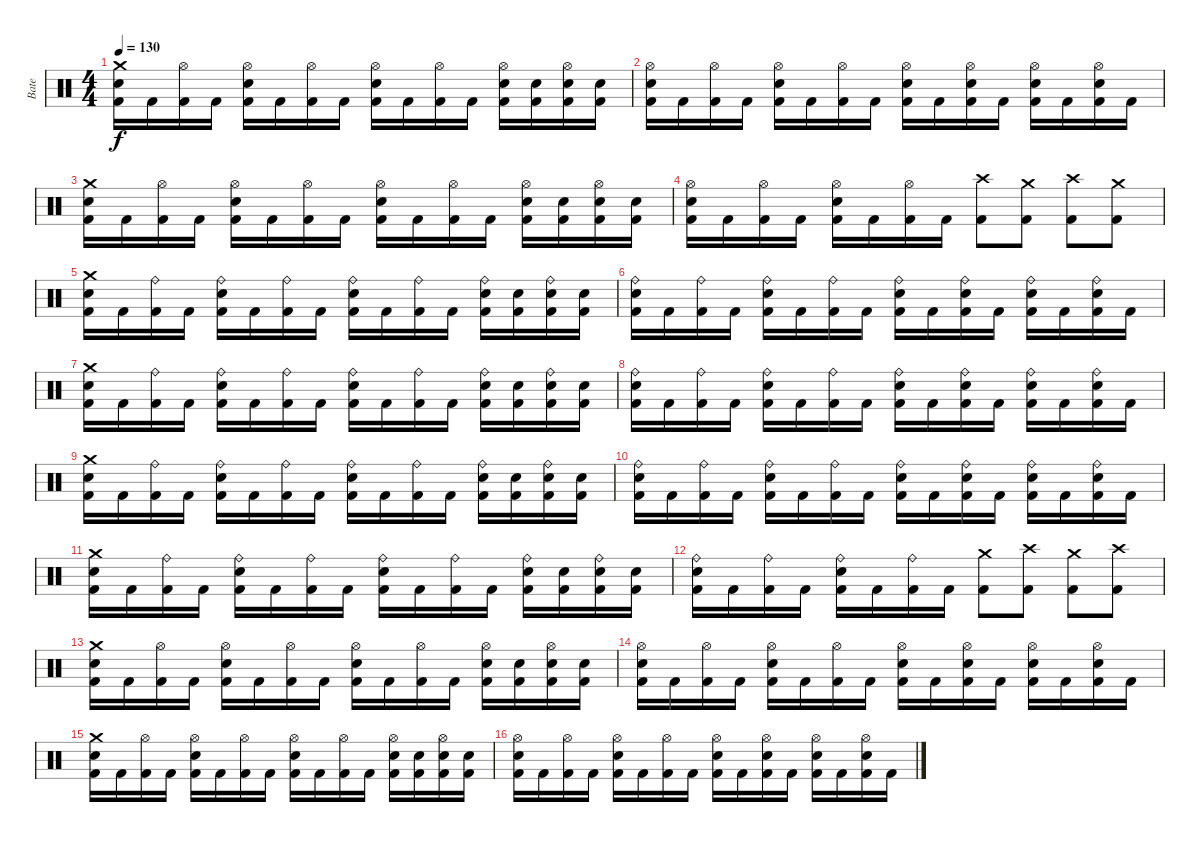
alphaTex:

\track ("Bate" "Bate") {instrument percussion}
\staff {score}
\articulation defaults
\ts (4 4)
\tempo 130
\clef neutral
\ks c
("Crash medium (hit)" "Snare (hit) 2" "Kick (hit) 2").16{dy f} "Kick (hit) 2".16 ("Hi-Hat (open)" "Kick (hit) 2").16 "Kick (hit) 2".16 ("Hi-Hat (open)" "Snare (hit) 2" "Kick (hit) 2").16 "Kick (hit) 2".16 ("Hi-Hat (open)" "Kick (hit) 2").16 "Kick (hit) 2".16 ("Hi-Hat (open)" "Snare (hit) 2" "Kick (hit) 2").16 "Kick (hit) 2".16 ("Hi-Hat (open)" "Kick (hit) 2").16 "Kick (hit) 2".16 ("Hi-Hat (open)" "Snare (hit) 2" "Kick (hit) 2").16 ("Snare (hit) 2" "Kick (hit) 2").16 ("Hi-Hat (open)" "Snare (hit) 2" "Kick (hit) 2").16 ("Snare (hit) 2" "Kick (hit) 2").16 |
("Hi-Hat (open)" "Snare (hit) 2" "Kick (hit) 2").16 "Kick (hit) 2".16 ("Hi-Hat (open)" "Kick (hit) 2").16 "Kick (hit) 2".16 ("Hi-Hat (open)" "Snare (hit) 2" "Kick (hit) 2").16 "Kick (hit) 2".16 ("Hi-Hat (open)" "Kick (hit) 2").16 "Kick (hit) 2".16 ("Hi-Hat (open)" "Snare (hit) 2" "Kick (hit) 2").16 "Kick (hit) 2".16 ("Hi-Hat (open)" "Snare (hit) 2" "Kick (hit) 2").16 "Kick (hit) 2".16 ("Hi-Hat (open)" "Snare (hit) 2" "Kick (hit) 2").16 "Kick (hit) 2".16 ("Hi-Hat (open)" "Snare (hit) 2" "Kick (hit) 2").16 "Kick (hit) 2".16 |
("Crash medium (hit)" "Snare (hit) 2" "Kick (hit) 2").16 "Kick (hit) 2".16 ("Hi-Hat (open)" "Kick (hit) 2").16 "Kick (hit) 2".16 ("Hi-Hat (open)" "Snare (hit) 2" "Kick (hit) 2").16 "Kick (hit) 2".16 ("Hi-Hat (open)" "Kick (hit) 2").16 "Kick (hit) 2".16 ("Hi-Hat (open)" "Snare (hit) 2" "Kick (hit) 2").16 "Kick (hit) 2".16 ("Hi-Hat (open)" "Kick (hit) 2").16 "Kick (hit) 2".16 ("Hi-Hat (open)" "Snare (hit) 2" "Kick (hit) 2").16 ("Snare (hit) 2" "Kick (hit) 2").16 ("Hi-Hat (open)" "Snare (hit) 2" "Kick (hit) 2").16 ("Snare (hit) 2" "Kick (hit) 2").16 |
("Hi-Hat (open)" "Snare (hit) 2" "Kick (hit) 2").16 "Kick (hit) 2".16 ("Hi-Hat (open)" "Kick (hit) 2").16 "Kick (hit) 2".16 ("Hi-Hat (open)" "Snare (hit) 2" "Kick (hit) 2").16 "Kick (hit) 2".16 ("Hi-Hat (open)" "Kick (hit) 2").16 "Kick (hit) 2".16 ("Crash high (hit)" "Kick (hit) 2").8 ("Crash medium (hit)" "Kick (hit) 2").8 ("Crash high (hit)" "Kick (hit) 2").8 ("Crash medium (hit)" "Kick (hit) 2").8 |
("Crash medium (hit)" "Snare (hit) 2" "Kick (hit) 2").16 "Kick (hit) 2".16 ("Ride (bell)" "Kick (hit) 2").16 "Kick (hit) 2".16 ("Ride (bell)" "Snare (hit) 2" "Kick (hit) 2").16 "Kick (hit) 2".16 ("Ride (bell)" "Kick (hit) 2").16 "Kick (hit) 2".16 ("Ride (bell)" "Snare (hit) 2" "Kick (hit) 2").16 "Kick (hit) 2".16 ("Ride (bell)" "Kick (hit) 2").16 "Kick (hit) 2".16 ("Ride (bell)" "Snare (hit) 2" "Kick (hit) 2").16 ("Snare (hit) 2" "Kick (hit) 2").16 ("Ride (bell)" "Snare (hit) 2" "Kick (hit) 2").16 ("Snare (hit) 2" "Kick (hit) 2").16 |
("Ride (bell)" "Snare (hit) 2" "Kick (hit) 2").16 "Kick (hit) 2".16 ("Ride (bell)" "Kick (hit) 2").16 "Kick (hit) 2".16 ("Ride (bell)" "Snare (hit) 2" "Kick (hit) 2").16 "Kick (hit) 2".16 ("Ride (bell)" "Kick (hit) 2").16 "Kick (hit) 2".16 ("Ride (bell)" "Snare (hit) 2" "Kick (hit) 2").16 "Kick (hit) 2".16 ("Ride (bell)" "Snare (hit) 2" "Kick (hit) 2").16 "Kick (hit) 2".16 ("Ride (bell)" "Snare (hit) 2" "Kick (hit) 2").16 "Kick (hit) 2".16 ("Ride (bell)" "Snare (hit) 2" "Kick (hit) 2").16 "Kick (hit) 2".16 |
("Crash medium (hit)" "Snare (hit) 2" "Kick (hit) 2").16 "Kick (hit) 2".16 ("Ride (bell)" "Kick (hit) 2").16 "Kick (hit) 2".16 ("Ride (bell)" "Snare (hit) 2" "Kick (hit) 2").16 "Kick (hit) 2".16 ("Ride (bell)" "Kick (hit) 2").16 "Kick (hit) 2".16 ("Ride (bell)" "Snare (hit) 2" "Kick (hit) 2").16 "Kick (hit) 2".16 ("Ride (bell)" "Kick (hit) 2").16 "Kick (hit) 2".16 ("Ride (bell)" "Snare (hit) 2" "Kick (hit) 2").16 ("Snare (hit) 2" "Kick (hit) 2").16 ("Ride (bell)" "Snare (hit) 2" "Kick (hit) 2").16 ("Snare (hit) 2" "Kick (hit) 2").16 |
("Ride (bell)" "Snare (hit) 2" "Kick (hit) 2").16 "Kick (hit) 2".16 ("Ride (bell)" "Kick (hit) 2").16 "Kick (hit) 2".16 ("Ride (bell)" "Snare (hit) 2" "Kick (hit) 2").16 "Kick (hit) 2".16 ("Ride (bell)" "Kick (hit) 2").16 "Kick (hit) 2".16 ("Ride (bell)" "Snare (hit) 2" "Kick (hit) 2").16 "Kick (hit) 2".16 ("Ride (bell)" "Snare (hit) 2" "Kick (hit) 2").16 "Kick (hit) 2".16 ("Ride (bell)" "Snare (hit) 2" "Kick (hit) 2").16 "Kick (hit) 2".16 ("Ride (bell)" "Snare (hit) 2" "Kick (hit) 2").16 "Kick (hit) 2".16 |
("Crash medium (hit)" "Snare (hit) 2" "Kick (hit) 2").16 "Kick (hit) 2".16 ("Ride (bell)" "Kick (hit) 2").16 "Kick (hit) 2".16 ("Ride (bell)" "Snare (hit) 2" "Kick (hit) 2").16 "Kick (hit) 2".16 ("Ride (bell)" "Kick (hit) 2").16 "Kick (hit) 2".16 ("Ride (bell)" "Snare (hit) 2" "Kick (hit) 2").16 "Kick (hit) 2".16 ("Ride (bell)" "Kick (hit) 2").16 "Kick (hit) 2".16 ("Ride (bell)" "Snare (hit) 2" "Kick (hit) 2").16 ("Snare (hit) 2" "Kick (hit) 2").16 ("Ride (bell)" "Snare (hit) 2" "Kick (hit) 2").16 ("Snare (hit) 2" "Kick (hit) 2").16 |
("Ride (bell)" "Snare (hit) 2" "Kick (hit) 2").16 "Kick (hit) 2".16 ("Ride (bell)" "Kick (hit) 2").16 "Kick (hit) 2".16 ("Ride (bell)" "Snare (hit) 2" "Kick (hit) 2").16 "Kick (hit) 2".16 ("Ride (bell)" "Kick (hit) 2").16 "Kick (hit) 2".16 ("Ride (bell)" "Snare (hit) 2" "Kick (hit) 2").16 "Kick (hit) 2".16 ("Ride (bell)" "Snare (hit) 2" "Kick (hit) 2").16 "Kick (hit) 2".16 ("Ride (bell)" "Snare (hit) 2" "Kick (hit) 2").16 "Kick (hit) 2".16 ("Ride (bell)" "Snare (hit) 2" "Kick (hit) 2").16 "Kick (hit) 2".16 |
("Crash medium (hit)" "Snare (hit) 2" "Kick (hit) 2").16 "Kick (hit) 2".16 ("Ride (bell)" "Kick (hit) 2").16 "Kick (hit) 2".16 ("Ride (bell)" "Snare (hit) 2" "Kick (hit) 2").16 "Kick (hit) 2".16 ("Ride (bell)" "Kick (hit) 2").16 "Kick (hit) 2".16 ("Ride (bell)" "Snare (hit) 2" "Kick (hit) 2").16 "Kick (hit) 2".16 ("Ride (bell)" "Kick (hit) 2").16 "Kick (hit) 2".16 ("Ride (bell)" "Snare (hit) 2" "Kick (hit) 2").16 ("Snare (hit) 2" "Kick (hit) 2").16 ("Ride (bell)" "Snare (hit) 2" "Kick (hit) 2").16 ("Snare (hit) 2" "Kick (hit) 2").16 |
("Ride (bell)" "Snare (hit) 2" "Kick (hit) 2").16 "Kick (hit) 2".16 ("Ride (bell)" "Kick (hit) 2").16 "Kick (hit) 2".16 ("Ride (bell)" "Snare (hit) 2" "Kick (hit) 2").16 "Kick (hit) 2".16 ("Ride (bell)" "Kick (hit) 2").16 "Kick (hit) 2".16 ("Crash medium (hit)" "Kick (hit) 2").8 ("Crash high (hit)" "Kick (hit) 2").8 ("Crash medium (hit)" "Kick (hit) 2").8 ("Crash high (hit)" "Kick (hit) 2").8 |
("Crash medium (hit)" "Snare (hit) 2" "Kick (hit) 2").16 "Kick (hit) 2".16 ("Hi-Hat (open)" "Kick (hit) 2").16 "Kick (hit) 2".16 ("Hi-Hat (open)" "Snare (hit) 2" "Kick (hit) 2").16 "Kick (hit) 2".16 ("Hi-Hat (open)" "Kick (hit) 2").16 "Kick (hit) 2".16 ("Hi-Hat (open)" "Snare (hit) 2" "Kick (hit) 2").16 "Kick (hit) 2".16 ("Hi-Hat (open)" "Kick (hit) 2").16 "Kick (hit) 2".16 ("Hi-Hat (open)" "Snare (hit) 2" "Kick (hit) 2").16 ("Snare (hit) 2" "Kick (hit) 2").16 ("Hi-Hat (open)" "Snare (hit) 2" "Kick (hit) 2").16 ("Snare (hit) 2" "Kick (hit) 2").16 |
("Hi-Hat (open)" "Snare (hit) 2" "Kick (hit) 2").16 "Kick (hit) 2".16 ("Hi-Hat (open)" "Kick (hit) 2").16 "Kick (hit) 2".16 ("Hi-Hat (open)" "Snare (hit) 2" "Kick (hit) 2").16 "Kick (hit) 2".16 ("Hi-Hat (open)" "Kick (hit) 2").16 "Kick (hit) 2".16 ("Hi-Hat (open)" "Snare (hit) 2" "Kick (hit) 2").16 "Kick (hit) 2".16 ("Hi-Hat (open)" "Snare (hit) 2" "Kick (hit) 2").16 "Kick (hit) 2".16 ("Hi-Hat (open)" "Snare (hit) 2" "Kick (hit) 2").16 "Kick (hit) 2".16 ("Hi-Hat (open)" "Snare (hit) 2" "Kick (hit) 2").16 "Kick (hit) 2".16 |
("Crash medium (hit)" "Snare (hit) 2" "Kick (hit) 2").16 "Kick (hit) 2".16 ("Hi-Hat (open)" "Kick (hit) 2").16 "Kick (hit) 2".16 ("Hi-Hat (open)" "Snare (hit) 2" "Kick (hit) 2").16 "Kick (hit) 2".16 ("Hi-Hat (open)" "Kick (hit) 2").16 "Kick (hit) 2".16 ("Hi-Hat (open)" "Snare (hit) 2" "Kick (hit) 2").16 "Kick (hit) 2".16 ("Hi-Hat (open)" "Kick (hit) 2").16 "Kick (hit) 2".16 ("Hi-Hat (open)" "Snare (hit) 2" "Kick (hit) 2").16 ("Snare (hit) 2" "Kick (hit) 2").16 ("Hi-Hat (open)" "Snare (hit) 2" "Kick (hit) 2").16 ("Snare (hit) 2" "Kick (hit) 2").16 |
("Hi-Hat (open)" "Snare (hit) 2" "Kick (hit) 2").16 "Kick (hit) 2".16 ("Hi-Hat (open)" "Kick (hit) 2").16 "Kick (hit) 2".16 ("Hi-Hat (open)" "Snare (hit) 2" "Kick (hit) 2").16 "Kick (hit) 2".16 ("Hi-Hat (open)" "Kick (hit) 2").16 "Kick (hit) 2".16 ("Hi-Hat (open)" "Snare (hit) 2" "Kick (hit) 2").16 "Kick (hit) 2".16 ("Hi-Hat (open)" "Snare (hit) 2" "Kick (hit) 2").16 "Kick (hit) 2".16 ("Hi-Hat (open)" "Snare (hit) 2" "Kick (hit) 2").16 "Kick (hit) 2".16 ("Hi-Hat (open)" "Snare (hit) 2" "Kick (hit) 2").16 "Kick (hit) 2".16
